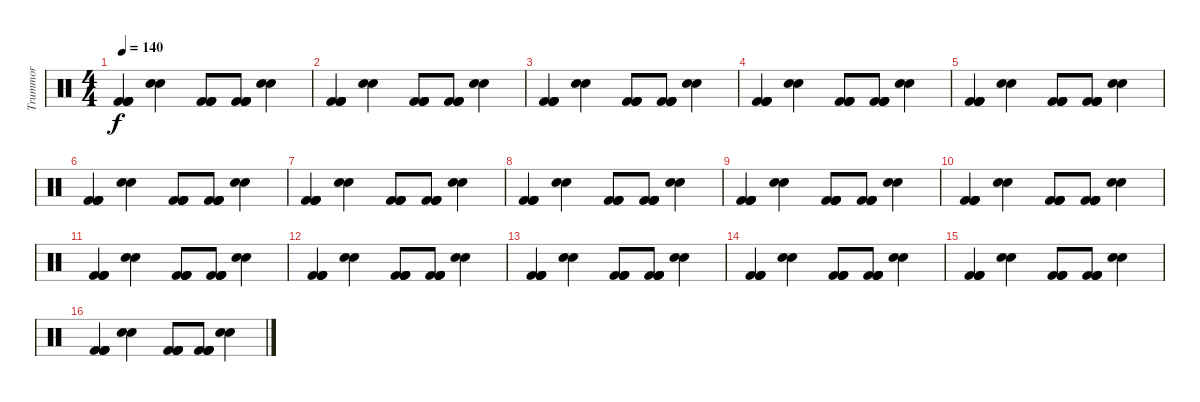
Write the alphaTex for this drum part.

\track ("Trummor" "Trummor") {instrument percussion}
\staff {score}
\articulation defaults
\ts (4 4)
\tempo 140
\clef neutral
\ks c
("Kick (hit) 2" "Kick (hit) 2" "Kick (hit) 2" "Kick (hit) 2").4{dy f} ("Hand Clap (hit)" "Electric Snare (hit)").4 ("Kick (hit) 2" "Kick (hit) 2" "Kick (hit) 2" "Kick (hit) 2").8 ("Kick (hit) 2" "Kick (hit) 2" "Kick (hit) 2" "Kick (hit) 2").8 ("Hand Clap (hit)" "Electric Snare (hit)").4 |
("Kick (hit) 2" "Kick (hit) 2" "Kick (hit) 2" "Kick (hit) 2").4 ("Hand Clap (hit)" "Electric Snare (hit)").4 ("Kick (hit) 2" "Kick (hit) 2" "Kick (hit) 2" "Kick (hit) 2").8 ("Kick (hit) 2" "Kick (hit) 2" "Kick (hit) 2" "Kick (hit) 2").8 ("Hand Clap (hit)" "Electric Snare (hit)").4 |
("Kick (hit) 2" "Kick (hit) 2" "Kick (hit) 2" "Kick (hit) 2").4 ("Hand Clap (hit)" "Electric Snare (hit)").4 ("Kick (hit) 2" "Kick (hit) 2" "Kick (hit) 2" "Kick (hit) 2").8 ("Kick (hit) 2" "Kick (hit) 2" "Kick (hit) 2" "Kick (hit) 2").8 ("Hand Clap (hit)" "Electric Snare (hit)").4 |
("Kick (hit) 2" "Kick (hit) 2" "Kick (hit) 2" "Kick (hit) 2").4 ("Hand Clap (hit)" "Electric Snare (hit)").4 ("Kick (hit) 2" "Kick (hit) 2" "Kick (hit) 2" "Kick (hit) 2").8 ("Kick (hit) 2" "Kick (hit) 2" "Kick (hit) 2" "Kick (hit) 2").8 ("Hand Clap (hit)" "Electric Snare (hit)").4 |
("Kick (hit) 2" "Kick (hit) 2" "Kick (hit) 2" "Kick (hit) 2").4 ("Hand Clap (hit)" "Electric Snare (hit)").4 ("Kick (hit) 2" "Kick (hit) 2" "Kick (hit) 2" "Kick (hit) 2").8 ("Kick (hit) 2" "Kick (hit) 2" "Kick (hit) 2" "Kick (hit) 2").8 ("Hand Clap (hit)" "Electric Snare (hit)").4 |
("Kick (hit) 2" "Kick (hit) 2" "Kick (hit) 2" "Kick (hit) 2").4 ("Hand Clap (hit)" "Electric Snare (hit)").4 ("Kick (hit) 2" "Kick (hit) 2" "Kick (hit) 2" "Kick (hit) 2").8 ("Kick (hit) 2" "Kick (hit) 2" "Kick (hit) 2" "Kick (hit) 2").8 ("Hand Clap (hit)" "Electric Snare (hit)").4 |
("Kick (hit) 2" "Kick (hit) 2" "Kick (hit) 2" "Kick (hit) 2").4 ("Hand Clap (hit)" "Electric Snare (hit)").4 ("Kick (hit) 2" "Kick (hit) 2" "Kick (hit) 2" "Kick (hit) 2").8 ("Kick (hit) 2" "Kick (hit) 2" "Kick (hit) 2" "Kick (hit) 2").8 ("Hand Clap (hit)" "Electric Snare (hit)").4 |
("Kick (hit) 2" "Kick (hit) 2" "Kick (hit) 2" "Kick (hit) 2").4 ("Hand Clap (hit)" "Electric Snare (hit)").4 ("Kick (hit) 2" "Kick (hit) 2" "Kick (hit) 2" "Kick (hit) 2").8 ("Kick (hit) 2" "Kick (hit) 2" "Kick (hit) 2" "Kick (hit) 2").8 ("Hand Clap (hit)" "Electric Snare (hit)").4 |
("Kick (hit) 2" "Kick (hit) 2" "Kick (hit) 2" "Kick (hit) 2").4 ("Hand Clap (hit)" "Electric Snare (hit)").4 ("Kick (hit) 2" "Kick (hit) 2" "Kick (hit) 2" "Kick (hit) 2").8 ("Kick (hit) 2" "Kick (hit) 2" "Kick (hit) 2" "Kick (hit) 2").8 ("Hand Clap (hit)" "Electric Snare (hit)").4 |
("Kick (hit) 2" "Kick (hit) 2" "Kick (hit) 2" "Kick (hit) 2").4 ("Hand Clap (hit)" "Electric Snare (hit)").4 ("Kick (hit) 2" "Kick (hit) 2" "Kick (hit) 2" "Kick (hit) 2").8 ("Kick (hit) 2" "Kick (hit) 2" "Kick (hit) 2" "Kick (hit) 2").8 ("Hand Clap (hit)" "Electric Snare (hit)").4 |
("Kick (hit) 2" "Kick (hit) 2" "Kick (hit) 2" "Kick (hit) 2").4 ("Hand Clap (hit)" "Electric Snare (hit)").4 ("Kick (hit) 2" "Kick (hit) 2" "Kick (hit) 2" "Kick (hit) 2").8 ("Kick (hit) 2" "Kick (hit) 2" "Kick (hit) 2" "Kick (hit) 2").8 ("Hand Clap (hit)" "Electric Snare (hit)").4 |
("Kick (hit) 2" "Kick (hit) 2" "Kick (hit) 2" "Kick (hit) 2").4 ("Hand Clap (hit)" "Electric Snare (hit)").4 ("Kick (hit) 2" "Kick (hit) 2" "Kick (hit) 2" "Kick (hit) 2").8 ("Kick (hit) 2" "Kick (hit) 2" "Kick (hit) 2" "Kick (hit) 2").8 ("Hand Clap (hit)" "Electric Snare (hit)").4 |
("Kick (hit) 2" "Kick (hit) 2" "Kick (hit) 2" "Kick (hit) 2").4 ("Hand Clap (hit)" "Electric Snare (hit)").4 ("Kick (hit) 2" "Kick (hit) 2" "Kick (hit) 2" "Kick (hit) 2").8 ("Kick (hit) 2" "Kick (hit) 2" "Kick (hit) 2" "Kick (hit) 2").8 ("Hand Clap (hit)" "Electric Snare (hit)").4 |
("Kick (hit) 2" "Kick (hit) 2" "Kick (hit) 2" "Kick (hit) 2").4 ("Hand Clap (hit)" "Electric Snare (hit)").4 ("Kick (hit) 2" "Kick (hit) 2" "Kick (hit) 2" "Kick (hit) 2").8 ("Kick (hit) 2" "Kick (hit) 2" "Kick (hit) 2" "Kick (hit) 2").8 ("Hand Clap (hit)" "Electric Snare (hit)").4 |
("Kick (hit) 2" "Kick (hit) 2" "Kick (hit) 2" "Kick (hit) 2").4 ("Hand Clap (hit)" "Electric Snare (hit)").4 ("Kick (hit) 2" "Kick (hit) 2" "Kick (hit) 2" "Kick (hit) 2").8 ("Kick (hit) 2" "Kick (hit) 2" "Kick (hit) 2" "Kick (hit) 2").8 ("Hand Clap (hit)" "Electric Snare (hit)").4 |
("Kick (hit) 2" "Kick (hit) 2" "Kick (hit) 2" "Kick (hit) 2").4 ("Hand Clap (hit)" "Electric Snare (hit)").4 ("Kick (hit) 2" "Kick (hit) 2" "Kick (hit) 2" "Kick (hit) 2").8 ("Kick (hit) 2" "Kick (hit) 2" "Kick (hit) 2" "Kick (hit) 2").8 ("Hand Clap (hit)" "Electric Snare (hit)").4
